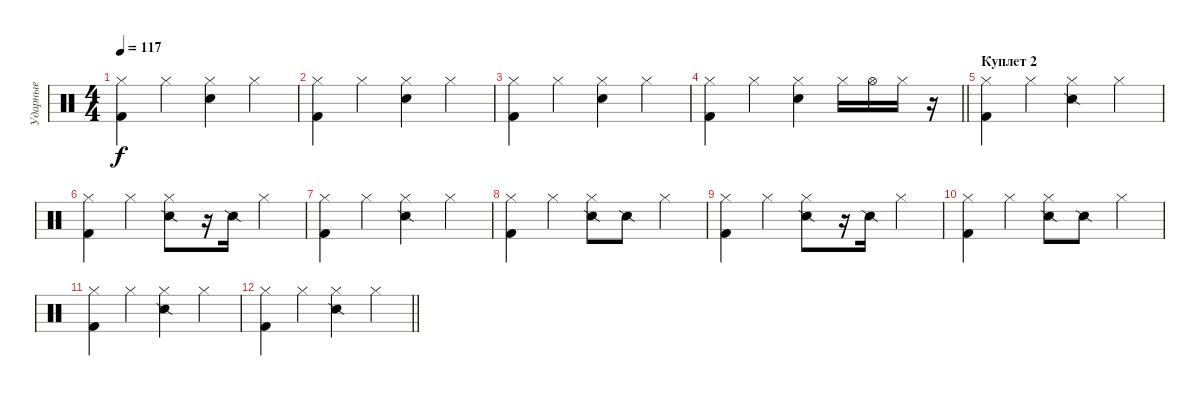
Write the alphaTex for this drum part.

\track ("Ударные" "Ударные") {instrument percussion}
\staff {score}
\articulation defaults
\ts (4 4)
\tempo 117
\clef neutral
\ks c
("Kick (hit) 2" "Hi-Hat (closed)").4{dy f} "Hi-Hat (closed)".4 ("Electric Snare (hit)" "Hi-Hat (closed)").4 "Hi-Hat (closed)".4 |
("Kick (hit) 2" "Hi-Hat (closed)").4 "Hi-Hat (closed)".4 ("Electric Snare (hit)" "Hi-Hat (closed)").4 "Hi-Hat (closed)".4 |
("Kick (hit) 2" "Hi-Hat (closed)").4 "Hi-Hat (closed)".4 ("Electric Snare (hit)" "Hi-Hat (closed)").4 "Hi-Hat (closed)".4 |
\barLineRight lightlight
("Kick (hit) 2" "Hi-Hat (closed)").4 "Hi-Hat (closed)".4 ("Electric Snare (hit)" "Hi-Hat (closed)").4 "Hi-Hat (closed)".16 "Hi-Hat (open)".16 "Hi-Hat (closed)".16 r.16 |
\section ("" "Куплет 2")
("Kick (hit) 2" "Hi-Hat (closed)").4 "Hi-Hat (closed)".4 ("Snare (side stick) 2" "Hi-Hat (closed)").4 "Hi-Hat (closed)".4 |
("Kick (hit) 2" "Hi-Hat (closed)").4 "Hi-Hat (closed)".4 ("Snare (side stick) 2" "Hi-Hat (closed)").8 r.16 "Snare (side stick) 2".16 "Hi-Hat (closed)".4 |
("Kick (hit) 2" "Hi-Hat (closed)").4 "Hi-Hat (closed)".4 ("Snare (side stick) 2" "Hi-Hat (closed)").4 "Hi-Hat (closed)".4 |
("Kick (hit) 2" "Hi-Hat (closed)").4 "Hi-Hat (closed)".4 ("Snare (side stick) 2" "Hi-Hat (closed)").8 "Snare (side stick) 2".8 "Hi-Hat (closed)".4 |
("Kick (hit) 2" "Hi-Hat (closed)").4 "Hi-Hat (closed)".4 ("Snare (side stick) 2" "Hi-Hat (closed)").8 r.16 "Snare (side stick) 2".16 "Hi-Hat (closed)".4 |
("Kick (hit) 2" "Hi-Hat (closed)").4 "Hi-Hat (closed)".4 ("Snare (side stick) 2" "Hi-Hat (closed)").8 "Snare (side stick) 2".8 "Hi-Hat (closed)".4 |
("Kick (hit) 2" "Hi-Hat (closed)").4 "Hi-Hat (closed)".4 ("Snare (side stick) 2" "Hi-Hat (closed)").4 "Hi-Hat (closed)".4 |
\barLineRight lightlight
("Kick (hit) 2" "Hi-Hat (closed)").4 "Hi-Hat (closed)".4 ("Snare (side stick) 2" "Hi-Hat (closed)").4 "Hi-Hat (closed)".4
